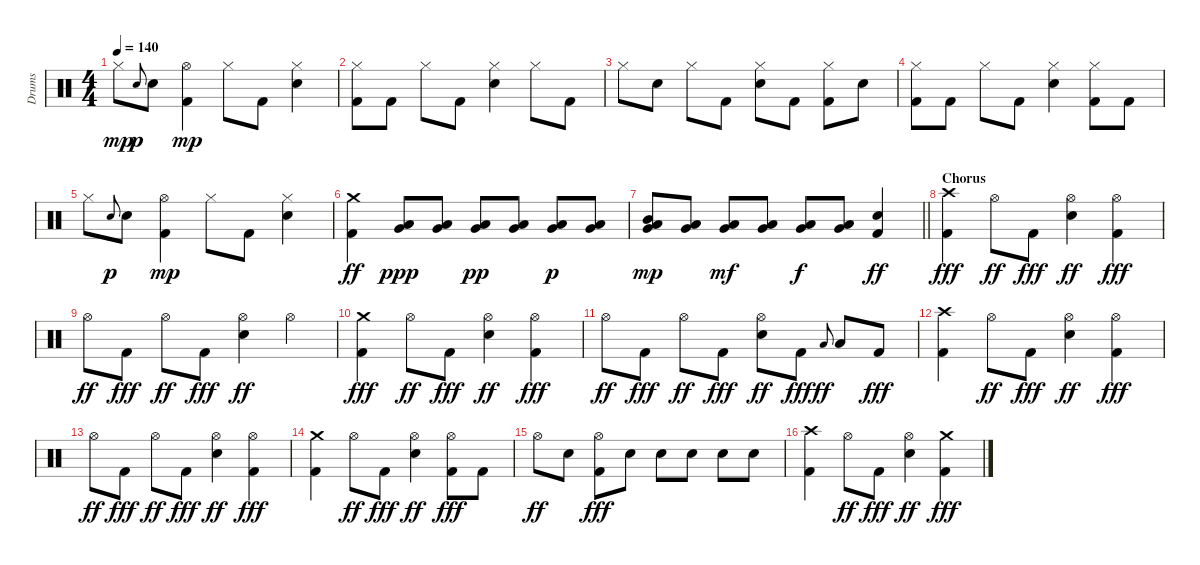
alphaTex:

\track ("Drums" "Drums") {instrument percussion}
\staff {score}
\articulation defaults
\ts (4 4)
\tempo 140
\clef neutral
\ks c "Hi-Hat (closed)".8{dy mp} "Snare (hit) 2".8{gr onbeat dy p} "Snare (hit) 2".8
("Hi-Hat (open)" "Kick (hit) 2").4{dy mp} "Hi-Hat (closed)".8 "Kick (hit) 2".8 ("Hi-Hat (closed)" "Snare (hit) 2").4 |
("Hi-Hat (closed)" "Kick (hit) 2").8 "Kick (hit) 2".8 "Hi-Hat (closed)".8 "Kick (hit) 2".8 ("Hi-Hat (closed)" "Snare (hit) 2").4 "Hi-Hat (closed)".8 "Kick (hit) 2".8 |
"Hi-Hat (closed)".8 "Snare (hit) 2".8 "Hi-Hat (closed)".8 "Kick (hit) 2".8 ("Hi-Hat (closed)" "Snare (hit) 2").8 "Kick (hit) 2".8 ("Hi-Hat (closed)" "Kick (hit) 2").8 "Snare (hit) 2".8 |
("Hi-Hat (closed)" "Kick (hit) 2").8 "Kick (hit) 2".8 "Hi-Hat (closed)".8 "Kick (hit) 2".8 ("Hi-Hat (closed)" "Snare (hit) 2").4 ("Hi-Hat (closed)" "Kick (hit) 2").8 "Kick (hit) 2".8 |
"Hi-Hat (closed)".8 "Snare (hit) 2".8{gr onbeat dy p} "Snare (hit) 2".8 ("Hi-Hat (open)" "Kick (hit) 2").4{dy mp} "Hi-Hat (closed)".8 "Kick (hit) 2".8 ("Hi-Hat (closed)" "Snare (hit) 2").4 |
("Crash medium (hit)" "Kick (hit) 2").4{dy ff} ("Low Tom (hit)" "Very Low Tom (hit)").8{dy ppp} ("Low Tom (hit)" "Very Low Tom (hit)").8 ("Low Tom (hit)" "Very Low Tom (hit)").8{dy pp} ("Low Tom (hit)" "Very Low Tom (hit)").8 ("Low Tom (hit)" "Very Low Tom (hit)").8{dy p} ("Low Tom (hit)" "Very Low Tom (hit)").8 |
\barLineRight lightlight
("Mid Tom (hit)" "Low Tom (hit)" "Very Low Tom (hit)").8{dy mp} ("Low Tom (hit)" "Very Low Tom (hit)").8 ("Low Tom (hit)" "Very Low Tom (hit)").8{dy mf} ("Low Tom (hit)" "Very Low Tom (hit)").8 ("Low Tom (hit)" "Very Low Tom (hit)").8{dy f} ("Low Tom (hit)" "Very Low Tom (hit)").8 ("Snare (hit) 2" "Kick (hit) 2").4{dy ff} |
\section ("" "Chorus")
("Crash high (hit)" "Kick (hit) 2").4{dy fff} "Hi-Hat (open)".8{dy ff} "Kick (hit) 2".8{dy fff} ("Hi-Hat (open)" "Snare (hit) 2").4{dy ff} ("Hi-Hat (open)" "Kick (hit) 2").4{dy fff} |
"Hi-Hat (open)".8{dy ff} "Kick (hit) 2".8{dy fff} "Hi-Hat (open)".8{dy ff} "Kick (hit) 2".8{dy fff} ("Hi-Hat (open)" "Snare (hit) 2").4{dy ff} "Hi-Hat (open)".4 |
("Crash medium (hit)" "Kick (hit) 2").4{dy fff} "Hi-Hat (open)".8{dy ff} "Kick (hit) 2".8{dy fff} ("Hi-Hat (open)" "Snare (hit) 2").4{dy ff} ("Hi-Hat (open)" "Kick (hit) 2").4{dy fff} |
"Hi-Hat (open)".8{dy ff} "Kick (hit) 2".8{dy fff} "Hi-Hat (open)".8{dy ff} "Kick (hit) 2".8{dy fff} ("Hi-Hat (open)" "Snare (hit) 2").8{dy ff} "Kick (hit) 2".8{dy fff} "Low Tom (hit)".8{gr onbeat dy ff} "Low Tom (hit)".8 "Kick (hit) 2".8{dy fff} |
("Crash high (hit)" "Kick (hit) 2").4 "Hi-Hat (open)".8{dy ff} "Kick (hit) 2".8{dy fff} ("Hi-Hat (open)" "Snare (hit) 2").4{dy ff} ("Hi-Hat (open)" "Kick (hit) 2").4{dy fff} |
"Hi-Hat (open)".8{dy ff} "Kick (hit) 2".8{dy fff} "Hi-Hat (open)".8{dy ff} "Kick (hit) 2".8{dy fff} ("Hi-Hat (open)" "Snare (hit) 2").4{dy ff} ("Hi-Hat (open)" "Kick (hit) 2").4{dy fff} |
("Crash medium (hit)" "Kick (hit) 2").4 "Hi-Hat (open)".8{dy ff} "Kick (hit) 2".8{dy fff} ("Hi-Hat (open)" "Snare (hit) 2").4{dy ff} ("Hi-Hat (open)" "Kick (hit) 2").8{dy fff} "Kick (hit) 2".8 |
"Hi-Hat (open)".8{dy ff} "Snare (hit) 2".8 ("Hi-Hat (open)" "Kick (hit) 2").8{dy fff} "Snare (hit) 2".8 "Snare (hit) 2".8 "Snare (hit) 2".8 "Snare (hit) 2".8 "Snare (hit) 2".8 |
("Crash high (hit)" "Kick (hit) 2").4 "Hi-Hat (open)".8{dy ff} "Kick (hit) 2".8{dy fff} ("Hi-Hat (open)" "Snare (hit) 2").4{dy ff} ("Crash medium (hit)" "Kick (hit) 2").4{dy fff}
